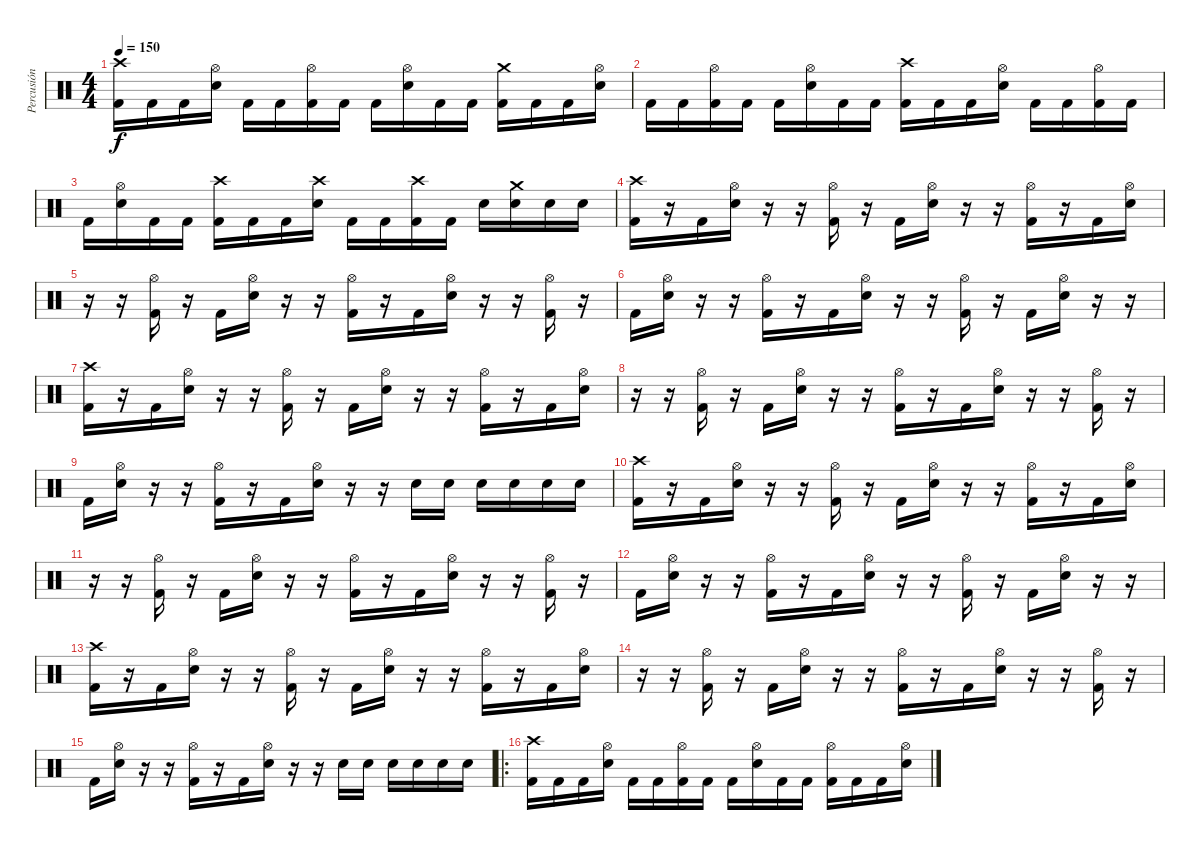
\track ("Percusión" "Percusión") {instrument percussion}
\staff {score}
\articulation defaults
\ts (4 4)
\tempo 150
\clef neutral
\ks c
("Crash high (hit)" "Kick (hit) 2").16{dy f} "Kick (hit) 2".16 "Kick (hit) 2".16 ("Hi-Hat (open)" "Electric Snare (hit)").16 "Kick (hit) 2".16 "Kick (hit) 2".16 ("Hi-Hat (open)" "Kick (hit) 2").16 "Kick (hit) 2".16 "Kick (hit) 2".16 ("Hi-Hat (open)" "Electric Snare (hit)").16 "Kick (hit) 2".16 "Kick (hit) 2".16 ("Crash medium (hit)" "Kick (hit) 2").16 "Kick (hit) 2".16 "Kick (hit) 2".16 ("Hi-Hat (open)" "Electric Snare (hit)").16 |
"Kick (hit) 2".16 "Kick (hit) 2".16 ("Hi-Hat (open)" "Kick (hit) 2").16 "Kick (hit) 2".16 "Kick (hit) 2".16 ("Hi-Hat (open)" "Electric Snare (hit)").16 "Kick (hit) 2".16 "Kick (hit) 2".16 ("Crash high (hit)" "Kick (hit) 2").16 "Kick (hit) 2".16 "Kick (hit) 2".16 ("Hi-Hat (open)" "Electric Snare (hit)").16 "Kick (hit) 2".16 "Kick (hit) 2".16 ("Hi-Hat (open)" "Kick (hit) 2").16 "Kick (hit) 2".16 |
"Kick (hit) 2".16 ("Hi-Hat (open)" "Electric Snare (hit)").16 "Kick (hit) 2".16 "Kick (hit) 2".16 ("Crash high (hit)" "Kick (hit) 2").16 "Kick (hit) 2".16 "Kick (hit) 2".16 ("Crash high (hit)" "Electric Snare (hit)").16 "Kick (hit) 2".16 "Kick (hit) 2".16 ("Crash high (hit)" "Kick (hit) 2").16 "Kick (hit) 2".16 "Electric Snare (hit)".16 ("Crash medium (hit)" "Electric Snare (hit)").16 "Electric Snare (hit)".16 "Electric Snare (hit)".16 |
("Crash high (hit)" "Kick (hit) 2").16 r.16 "Kick (hit) 2".16 ("Hi-Hat (open)" "Electric Snare (hit)").16 r.16 r.16 ("Hi-Hat (open)" "Kick (hit) 2").16 r.16 "Kick (hit) 2".16 ("Hi-Hat (open)" "Electric Snare (hit)").16 r.16 r.16 ("Hi-Hat (open)" "Kick (hit) 2").16 r.16 "Kick (hit) 2".16 ("Hi-Hat (open)" "Electric Snare (hit)").16 |
r.16 r.16 ("Hi-Hat (open)" "Kick (hit) 2").16 r.16 "Kick (hit) 2".16 ("Hi-Hat (open)" "Electric Snare (hit)").16 r.16 r.16 ("Hi-Hat (open)" "Kick (hit) 2").16 r.16 "Kick (hit) 2".16 ("Hi-Hat (open)" "Electric Snare (hit)").16 r.16 r.16 ("Hi-Hat (open)" "Kick (hit) 2").16 r.16 |
"Kick (hit) 2".16 ("Hi-Hat (open)" "Electric Snare (hit)").16 r.16 r.16 ("Hi-Hat (open)" "Kick (hit) 2").16 r.16 "Kick (hit) 2".16 ("Hi-Hat (open)" "Electric Snare (hit)").16 r.16 r.16 ("Hi-Hat (open)" "Kick (hit) 2").16 r.16 "Kick (hit) 2".16 ("Hi-Hat (open)" "Electric Snare (hit)").16 r.16 r.16 |
("Crash high (hit)" "Kick (hit) 2").16 r.16 "Kick (hit) 2".16 ("Hi-Hat (open)" "Electric Snare (hit)").16 r.16 r.16 ("Hi-Hat (open)" "Kick (hit) 2").16 r.16 "Kick (hit) 2".16 ("Hi-Hat (open)" "Electric Snare (hit)").16 r.16 r.16 ("Hi-Hat (open)" "Kick (hit) 2").16 r.16 "Kick (hit) 2".16 ("Hi-Hat (open)" "Electric Snare (hit)").16 |
r.16 r.16 ("Hi-Hat (open)" "Kick (hit) 2").16 r.16 "Kick (hit) 2".16 ("Hi-Hat (open)" "Electric Snare (hit)").16 r.16 r.16 ("Hi-Hat (open)" "Kick (hit) 2").16 r.16 "Kick (hit) 2".16 ("Hi-Hat (open)" "Electric Snare (hit)").16 r.16 r.16 ("Hi-Hat (open)" "Kick (hit) 2").16 r.16 |
"Kick (hit) 2".16 ("Hi-Hat (open)" "Electric Snare (hit)").16 r.16 r.16 ("Hi-Hat (open)" "Kick (hit) 2").16 r.16 "Kick (hit) 2".16 ("Hi-Hat (open)" "Electric Snare (hit)").16 r.16 r.16 "Electric Snare (hit)".16 "Electric Snare (hit)".16 "Electric Snare (hit)".16 "Electric Snare (hit)".16 "Electric Snare (hit)".16 "Electric Snare (hit)".16 |
("Crash high (hit)" "Kick (hit) 2").16 r.16 "Kick (hit) 2".16 ("Hi-Hat (open)" "Electric Snare (hit)").16 r.16 r.16 ("Hi-Hat (open)" "Kick (hit) 2").16 r.16 "Kick (hit) 2".16 ("Hi-Hat (open)" "Electric Snare (hit)").16 r.16 r.16 ("Hi-Hat (open)" "Kick (hit) 2").16 r.16 "Kick (hit) 2".16 ("Hi-Hat (open)" "Electric Snare (hit)").16 |
r.16 r.16 ("Hi-Hat (open)" "Kick (hit) 2").16 r.16 "Kick (hit) 2".16 ("Hi-Hat (open)" "Electric Snare (hit)").16 r.16 r.16 ("Hi-Hat (open)" "Kick (hit) 2").16 r.16 "Kick (hit) 2".16 ("Hi-Hat (open)" "Electric Snare (hit)").16 r.16 r.16 ("Hi-Hat (open)" "Kick (hit) 2").16 r.16 |
"Kick (hit) 2".16 ("Hi-Hat (open)" "Electric Snare (hit)").16 r.16 r.16 ("Hi-Hat (open)" "Kick (hit) 2").16 r.16 "Kick (hit) 2".16 ("Hi-Hat (open)" "Electric Snare (hit)").16 r.16 r.16 ("Hi-Hat (open)" "Kick (hit) 2").16 r.16 "Kick (hit) 2".16 ("Hi-Hat (open)" "Electric Snare (hit)").16 r.16 r.16 |
("Crash high (hit)" "Kick (hit) 2").16 r.16 "Kick (hit) 2".16 ("Hi-Hat (open)" "Electric Snare (hit)").16 r.16 r.16 ("Hi-Hat (open)" "Kick (hit) 2").16 r.16 "Kick (hit) 2".16 ("Hi-Hat (open)" "Electric Snare (hit)").16 r.16 r.16 ("Hi-Hat (open)" "Kick (hit) 2").16 r.16 "Kick (hit) 2".16 ("Hi-Hat (open)" "Electric Snare (hit)").16 |
r.16 r.16 ("Hi-Hat (open)" "Kick (hit) 2").16 r.16 "Kick (hit) 2".16 ("Hi-Hat (open)" "Electric Snare (hit)").16 r.16 r.16 ("Hi-Hat (open)" "Kick (hit) 2").16 r.16 "Kick (hit) 2".16 ("Hi-Hat (open)" "Electric Snare (hit)").16 r.16 r.16 ("Hi-Hat (open)" "Kick (hit) 2").16 r.16 |
"Kick (hit) 2".16 ("Hi-Hat (open)" "Electric Snare (hit)").16 r.16 r.16 ("Hi-Hat (open)" "Kick (hit) 2").16 r.16 "Kick (hit) 2".16 ("Hi-Hat (open)" "Electric Snare (hit)").16 r.16 r.16 "Electric Snare (hit)".16 "Electric Snare (hit)".16 "Electric Snare (hit)".16 "Electric Snare (hit)".16 "Electric Snare (hit)".16 "Electric Snare (hit)".16 |
\ro
("Crash high (hit)" "Kick (hit) 2").16 "Kick (hit) 2".16 "Kick (hit) 2".16 ("Hi-Hat (open)" "Electric Snare (hit)").16 "Kick (hit) 2".16 "Kick (hit) 2".16 ("Hi-Hat (open)" "Kick (hit) 2").16 "Kick (hit) 2".16 "Kick (hit) 2".16 ("Hi-Hat (open)" "Electric Snare (hit)").16 "Kick (hit) 2".16 "Kick (hit) 2".16 ("Hi-Hat (open)" "Kick (hit) 2").16 "Kick (hit) 2".16 "Kick (hit) 2".16 ("Hi-Hat (open)" "Electric Snare (hit)").16
